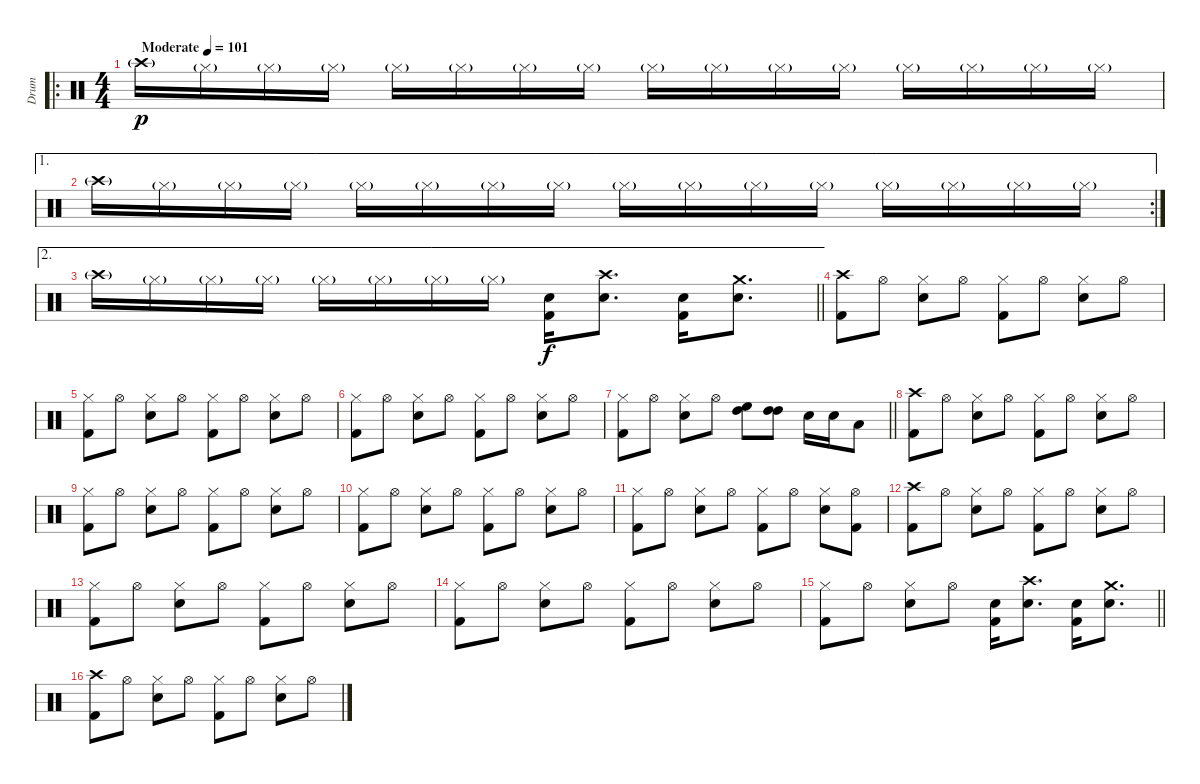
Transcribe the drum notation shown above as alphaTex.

\track ("Drum" "Drum") {instrument percussion}
\staff {score}
\articulation defaults
\ro
\ts (4 4)
\tempo (101 "Moderate")
\clef neutral
\ks c "Crash high (hit)"{g}.16{dy p} "Hi-Hat (closed)"{g}.16 "Hi-Hat (closed)"{g}.16 "Hi-Hat (closed)"{g}.16 "Hi-Hat (closed)"{g}.16 "Hi-Hat (closed)"{g}.16 "Hi-Hat (closed)"{g}.16 "Hi-Hat (closed)"{g}.16 "Hi-Hat (closed)"{g}.16 "Hi-Hat (closed)"{g}.16 "Hi-Hat (closed)"{g}.16 "Hi-Hat (closed)"{g}.16 "Hi-Hat (closed)"{g}.16 "Hi-Hat (closed)"{g}.16 "Hi-Hat (closed)"{g}.16 "Hi-Hat (closed)"{g}.16
|
\ae 1
\rc 2 "Crash high (hit)"{g}.16 "Hi-Hat (closed)"{g}.16 "Hi-Hat (closed)"{g}.16 "Hi-Hat (closed)"{g}.16 "Hi-Hat (closed)"{g}.16 "Hi-Hat (closed)"{g}.16 "Hi-Hat (closed)"{g}.16 "Hi-Hat (closed)"{g}.16 "Hi-Hat (closed)"{g}.16 "Hi-Hat (closed)"{g}.16 "Hi-Hat (closed)"{g}.16 "Hi-Hat (closed)"{g}.16 "Hi-Hat (closed)"{g}.16 "Hi-Hat (closed)"{g}.16 "Hi-Hat (closed)"{g}.16 "Hi-Hat (closed)"{g}.16
|
\ae 2
\barLineRight lightlight "Crash high (hit)"{g}.16 "Hi-Hat (closed)"{g}.16 "Hi-Hat (closed)"{g}.16 "Hi-Hat (closed)"{g}.16 "Hi-Hat (closed)"{g}.16 "Hi-Hat (closed)"{g}.16 "Hi-Hat (closed)"{g}.16 "Hi-Hat (closed)"{g}.16
("Snare (hit) 2" "Kick (hit) 2").16{dy f} ("Crash high (hit)" "Snare (hit) 2").8{d} ("Snare (hit) 2" "Kick (hit) 2").16 ("Crash medium (hit)" "Snare (hit) 2").8{d} |
("Crash high (hit)" "Kick (hit) 2").8 "Hi-Hat (open)".8 ("Hi-Hat (closed)" "Snare (hit) 2").8 "Hi-Hat (open)".8 ("Hi-Hat (closed)" "Kick (hit) 2").8 "Hi-Hat (open)".8 ("Hi-Hat (closed)" "Snare (hit) 2").8 "Hi-Hat (open)".8 |
("Hi-Hat (closed)" "Kick (hit) 2").8 "Hi-Hat (open)".8 ("Hi-Hat (closed)" "Snare (hit) 2").8 "Hi-Hat (open)".8 ("Hi-Hat (closed)" "Kick (hit) 2").8 "Hi-Hat (open)".8 ("Hi-Hat (closed)" "Snare (hit) 2").8 "Hi-Hat (open)".8 |
("Hi-Hat (closed)" "Kick (hit) 2").8 "Hi-Hat (open)".8 ("Hi-Hat (closed)" "Snare (hit) 2").8 "Hi-Hat (open)".8 ("Hi-Hat (closed)" "Kick (hit) 2").8 "Hi-Hat (open)".8 ("Hi-Hat (closed)" "Snare (hit) 2").8 "Hi-Hat (open)".8 |
\barLineRight lightlight
("Hi-Hat (closed)" "Kick (hit) 2").8 "Hi-Hat (open)".8 ("Hi-Hat (closed)" "Snare (hit) 2").8 "Hi-Hat (open)".8 ("High Tom (hit)" "High Floor Tom (hit)").8 ("High Tom (hit)" "High Tom (hit)").8 "Snare (hit) 2".16 "Snare (hit) 2".16 "Low Tom (hit)".8 |
("Crash high (hit)" "Kick (hit) 2").8 "Hi-Hat (open)".8 ("Hi-Hat (closed)" "Snare (hit) 2").8 "Hi-Hat (open)".8 ("Hi-Hat (closed)" "Kick (hit) 2").8 "Hi-Hat (open)".8 ("Hi-Hat (closed)" "Snare (hit) 2").8 "Hi-Hat (open)".8 |
("Hi-Hat (closed)" "Kick (hit) 2").8 "Hi-Hat (open)".8 ("Hi-Hat (closed)" "Snare (hit) 2").8 "Hi-Hat (open)".8 ("Hi-Hat (closed)" "Kick (hit) 2").8 "Hi-Hat (open)".8 ("Hi-Hat (closed)" "Snare (hit) 2").8 "Hi-Hat (open)".8 |
("Hi-Hat (closed)" "Kick (hit) 2").8 "Hi-Hat (open)".8 ("Hi-Hat (closed)" "Snare (hit) 2").8 "Hi-Hat (open)".8 ("Hi-Hat (closed)" "Kick (hit) 2").8 "Hi-Hat (open)".8 ("Hi-Hat (closed)" "Snare (hit) 2").8 "Hi-Hat (open)".8 |
("Hi-Hat (closed)" "Kick (hit) 2").8 "Hi-Hat (open)".8 ("Hi-Hat (closed)" "Snare (hit) 2").8 "Hi-Hat (open)".8 ("Hi-Hat (closed)" "Kick (hit) 2").8 "Hi-Hat (open)".8 ("Hi-Hat (closed)" "Snare (hit) 2").8 ("Hi-Hat (open)" "Kick (hit) 2").8 |
("Crash high (hit)" "Kick (hit) 2").8 "Hi-Hat (open)".8 ("Hi-Hat (closed)" "Snare (hit) 2").8 "Hi-Hat (open)".8 ("Hi-Hat (closed)" "Kick (hit) 2").8 "Hi-Hat (open)".8 ("Hi-Hat (closed)" "Snare (hit) 2").8 "Hi-Hat (open)".8 |
("Hi-Hat (closed)" "Kick (hit) 2").8 "Hi-Hat (open)".8 ("Hi-Hat (closed)" "Snare (hit) 2").8 "Hi-Hat (open)".8 ("Hi-Hat (closed)" "Kick (hit) 2").8 "Hi-Hat (open)".8 ("Hi-Hat (closed)" "Snare (hit) 2").8 "Hi-Hat (open)".8 |
("Hi-Hat (closed)" "Kick (hit) 2").8 "Hi-Hat (open)".8 ("Hi-Hat (closed)" "Snare (hit) 2").8 "Hi-Hat (open)".8 ("Hi-Hat (closed)" "Kick (hit) 2").8 "Hi-Hat (open)".8 ("Hi-Hat (closed)" "Snare (hit) 2").8 "Hi-Hat (open)".8 |
\barLineRight lightlight
("Hi-Hat (closed)" "Kick (hit) 2").8 "Hi-Hat (open)".8 ("Hi-Hat (closed)" "Snare (hit) 2").8 "Hi-Hat (open)".8 ("Snare (hit) 2" "Kick (hit) 2").16{volume 13} ("Crash high (hit)" "Snare (hit) 2").8{d} ("Snare (hit) 2" "Kick (hit) 2").16 ("Crash medium (hit)" "Snare (hit) 2").8{d} |
("Crash high (hit)" "Kick (hit) 2").8 "Hi-Hat (open)".8 ("Hi-Hat (closed)" "Snare (hit) 2").8 "Hi-Hat (open)".8 ("Hi-Hat (closed)" "Kick (hit) 2").8 "Hi-Hat (open)".8 ("Hi-Hat (closed)" "Snare (hit) 2").8 "Hi-Hat (open)".8
